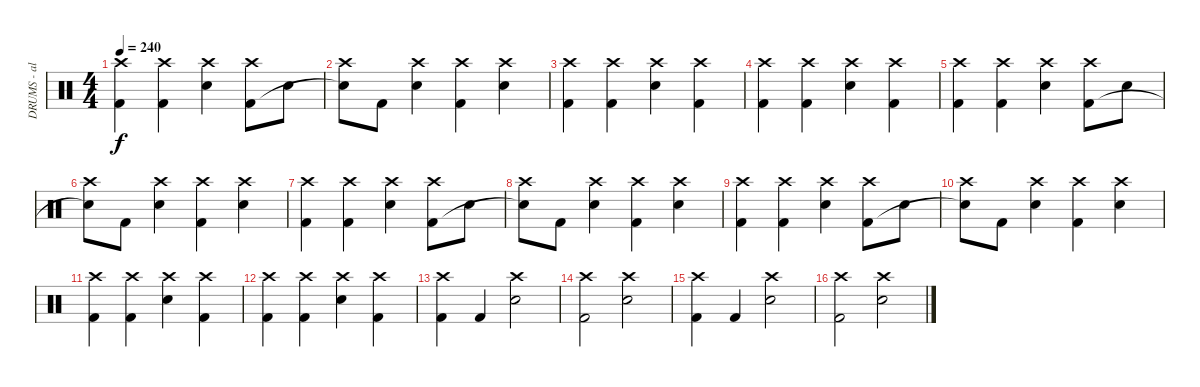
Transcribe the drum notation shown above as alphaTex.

\track ("DRUMS - alastor" "DRUMS - al") {instrument percussion}
\staff {score}
\articulation defaults
\ts (4 4)
\tempo 240
\clef neutral
\ks c
("Crash high (hit)" "Kick (hit) 2").4{dy f} ("Crash high (hit)" "Kick (hit) 2").4 ("Crash high (hit)" "Snare (hit) 2").4 ("Crash high (hit)" "Kick (hit) 2").8 "Snare (hit) 2".8 |
("Crash high (hit)" "Snare (hit) 2"{t}).8 "Kick (hit) 2".8 ("Crash high (hit)" "Snare (hit) 2").4 ("Crash high (hit)" "Kick (hit) 2").4 ("Crash high (hit)" "Snare (hit) 2").4 |
("Crash high (hit)" "Kick (hit) 2").4 ("Crash high (hit)" "Kick (hit) 2").4 ("Crash high (hit)" "Snare (hit) 2").4 ("Crash high (hit)" "Kick (hit) 2").4 |
("Crash high (hit)" "Kick (hit) 2").4 ("Crash high (hit)" "Kick (hit) 2").4 ("Crash high (hit)" "Snare (hit) 2").4 ("Crash high (hit)" "Kick (hit) 2").4 |
("Crash high (hit)" "Kick (hit) 2").4 ("Crash high (hit)" "Kick (hit) 2").4 ("Crash high (hit)" "Snare (hit) 2").4 ("Crash high (hit)" "Kick (hit) 2").8 "Snare (hit) 2".8 |
("Crash high (hit)" "Snare (hit) 2"{t}).8 "Kick (hit) 2".8 ("Crash high (hit)" "Snare (hit) 2").4 ("Crash high (hit)" "Kick (hit) 2").4 ("Crash high (hit)" "Snare (hit) 2").4 |
("Crash high (hit)" "Kick (hit) 2").4 ("Crash high (hit)" "Kick (hit) 2").4 ("Crash high (hit)" "Snare (hit) 2").4 ("Crash high (hit)" "Kick (hit) 2").8 "Snare (hit) 2".8 |
("Crash high (hit)" "Snare (hit) 2"{t}).8 "Kick (hit) 2".8 ("Crash high (hit)" "Snare (hit) 2").4 ("Crash high (hit)" "Kick (hit) 2").4 ("Crash high (hit)" "Snare (hit) 2").4 |
("Crash high (hit)" "Kick (hit) 2").4 ("Crash high (hit)" "Kick (hit) 2").4 ("Crash high (hit)" "Snare (hit) 2").4 ("Crash high (hit)" "Kick (hit) 2").8 "Snare (hit) 2".8 |
("Crash high (hit)" "Snare (hit) 2"{t}).8 "Kick (hit) 2".8 ("Crash high (hit)" "Snare (hit) 2").4 ("Crash high (hit)" "Kick (hit) 2").4 ("Crash high (hit)" "Snare (hit) 2").4 |
("Crash high (hit)" "Kick (hit) 2").4 ("Crash high (hit)" "Kick (hit) 2").4 ("Crash high (hit)" "Snare (hit) 2").4 ("Crash high (hit)" "Kick (hit) 2").4 |
("Crash high (hit)" "Kick (hit) 2").4 ("Crash high (hit)" "Kick (hit) 2").4 ("Crash high (hit)" "Snare (hit) 2").4 ("Crash high (hit)" "Kick (hit) 2").4 |
("Crash high (hit)" "Kick (hit) 2").4 "Kick (hit) 2".4 ("Crash high (hit)" "Snare (hit) 2").2 |
("Crash high (hit)" "Kick (hit) 2").2 ("Crash high (hit)" "Snare (hit) 2").2 |
("Crash high (hit)" "Kick (hit) 2").4 "Kick (hit) 2".4 ("Crash high (hit)" "Snare (hit) 2").2 |
("Crash high (hit)" "Kick (hit) 2").2 ("Crash high (hit)" "Snare (hit) 2").2
